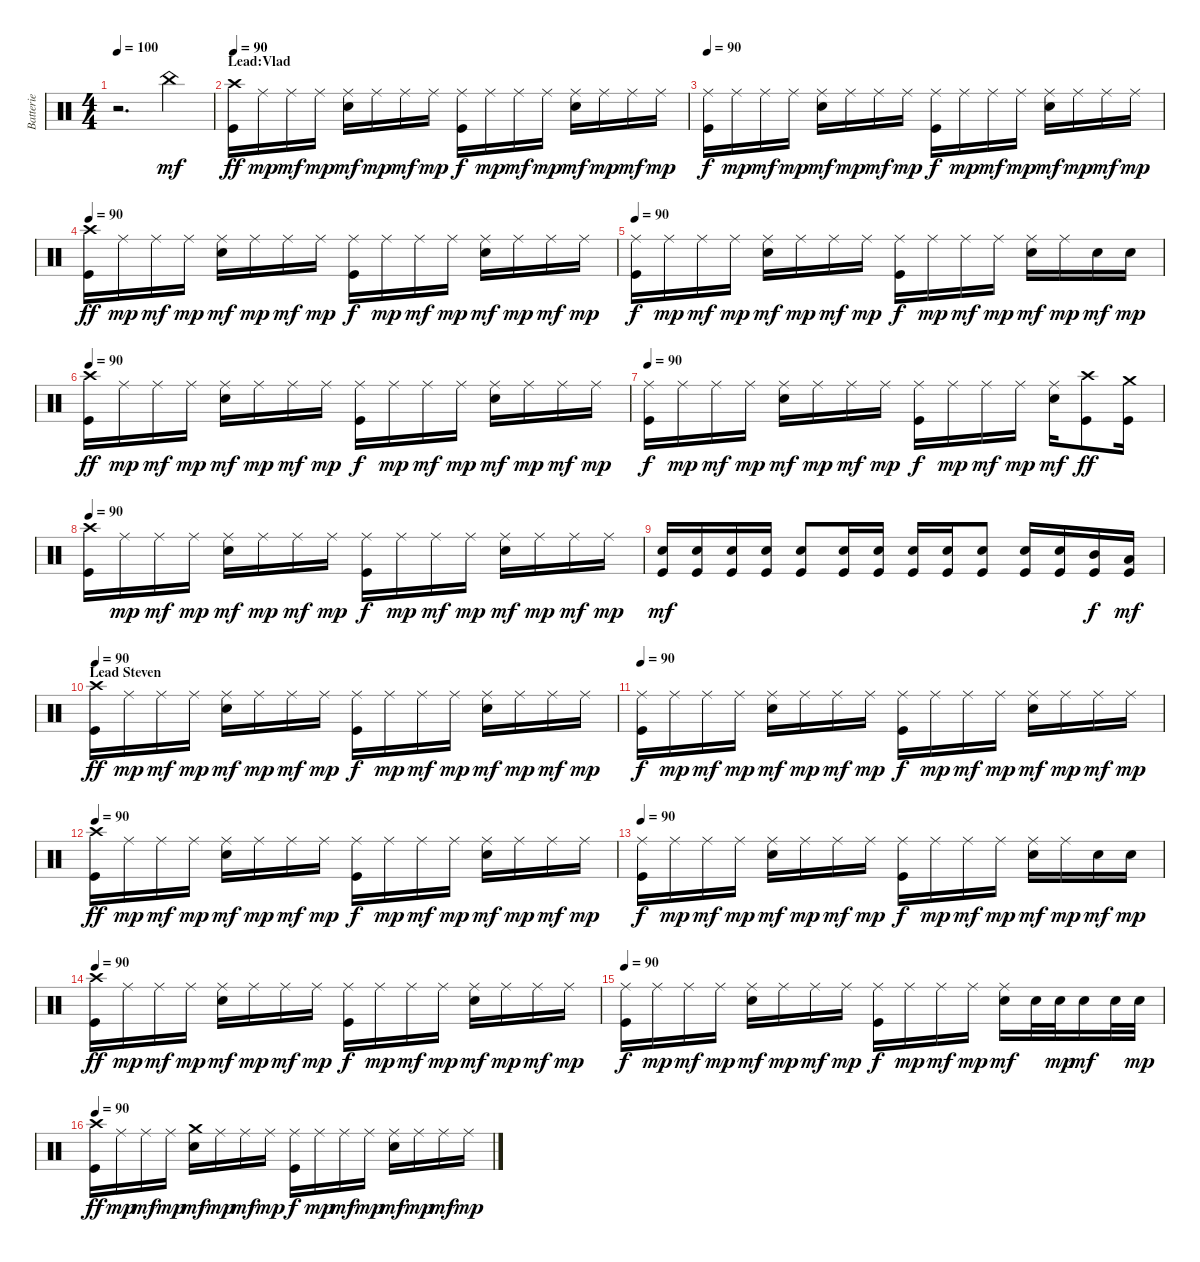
\track ("Batterie" "Batterie") {instrument percussion}
\staff {score}
\articulation defaults
\ts (4 4)
\tempo 100
\clef neutral
\ks c
r.2{d dy f} "China (hit)".4{dy mf} |
\section ("" "Lead:Vlad")
\tempo 90
("Crash high (hit)" "Kick (hit)").16{dy ff} "Ride (middle)".16{dy mp} "Ride (middle)".16{dy mf} "Ride (middle)".16{dy mp} ("Ride (middle)" "Electric Snare (hit)").16{dy mf} "Ride (middle)".16{dy mp} "Ride (middle)".16{dy mf} "Ride (middle)".16{dy mp} ("Ride (middle)" "Kick (hit)").16{dy f} "Ride (middle)".16{dy mp} "Ride (middle)".16{dy mf} "Ride (middle)".16{dy mp} ("Ride (middle)" "Electric Snare (hit)").16{dy mf} "Ride (middle)".16{dy mp} "Ride (middle)".16{dy mf} "Ride (middle)".16{dy mp} |
\tempo 90
("Ride (middle)" "Kick (hit)").16{dy f} "Ride (middle)".16{dy mp} "Ride (middle)".16{dy mf} "Ride (middle)".16{dy mp} ("Ride (middle)" "Electric Snare (hit)").16{dy mf} "Ride (middle)".16{dy mp} "Ride (middle)".16{dy mf} "Ride (middle)".16{dy mp} ("Ride (middle)" "Kick (hit)").16{dy f} "Ride (middle)".16{dy mp} "Ride (middle)".16{dy mf} "Ride (middle)".16{dy mp} ("Ride (middle)" "Electric Snare (hit)").16{dy mf} "Ride (middle)".16{dy mp} "Ride (middle)".16{dy mf} "Ride (middle)".16{dy mp} |
\tempo 90
("Crash high (hit)" "Kick (hit)").16{dy ff} "Ride (middle)".16{dy mp} "Ride (middle)".16{dy mf} "Ride (middle)".16{dy mp} ("Ride (middle)" "Electric Snare (hit)").16{dy mf} "Ride (middle)".16{dy mp} "Ride (middle)".16{dy mf} "Ride (middle)".16{dy mp} ("Ride (middle)" "Kick (hit)").16{dy f} "Ride (middle)".16{dy mp} "Ride (middle)".16{dy mf} "Ride (middle)".16{dy mp} ("Ride (middle)" "Electric Snare (hit)").16{dy mf} "Ride (middle)".16{dy mp} "Ride (middle)".16{dy mf} "Ride (middle)".16{dy mp} |
\tempo 90
("Ride (middle)" "Kick (hit)").16{dy f} "Ride (middle)".16{dy mp} "Ride (middle)".16{dy mf} "Ride (middle)".16{dy mp} ("Ride (middle)" "Electric Snare (hit)").16{dy mf} "Ride (middle)".16{dy mp} "Ride (middle)".16{dy mf} "Ride (middle)".16{dy mp} ("Ride (middle)" "Kick (hit)").16{dy f} "Ride (middle)".16{dy mp} "Ride (middle)".16{dy mf} "Ride (middle)".16{dy mp} ("Ride (middle)" "Electric Snare (hit)").16{dy mf} "Ride (middle)".16{dy mp} "Electric Snare (hit)".16{dy mf} "Electric Snare (hit)".16{dy mp} |
\tempo 90
("Crash high (hit)" "Kick (hit)").16{dy ff} "Ride (middle)".16{dy mp} "Ride (middle)".16{dy mf} "Ride (middle)".16{dy mp} ("Ride (middle)" "Electric Snare (hit)").16{dy mf} "Ride (middle)".16{dy mp} "Ride (middle)".16{dy mf} "Ride (middle)".16{dy mp} ("Ride (middle)" "Kick (hit)").16{dy f} "Ride (middle)".16{dy mp} "Ride (middle)".16{dy mf} "Ride (middle)".16{dy mp} ("Ride (middle)" "Electric Snare (hit)").16{dy mf} "Ride (middle)".16{dy mp} "Ride (middle)".16{dy mf} "Ride (middle)".16{dy mp} |
\tempo 90
("Ride (middle)" "Kick (hit)").16{dy f} "Ride (middle)".16{dy mp} "Ride (middle)".16{dy mf} "Ride (middle)".16{dy mp} ("Ride (middle)" "Electric Snare (hit)").16{dy mf} "Ride (middle)".16{dy mp} "Ride (middle)".16{dy mf} "Ride (middle)".16{dy mp} ("Ride (middle)" "Kick (hit)").16{dy f} "Ride (middle)".16{dy mp} "Ride (middle)".16{dy mf} "Ride (middle)".16{dy mp} ("Ride (middle)" "Electric Snare (hit)").16{dy mf} ("Crash high (hit)" "Kick (hit)").8{dy ff} ("Crash medium (hit)" "Kick (hit)").16 |
\tempo 90
("Crash high (hit)" "Kick (hit)").16 "Ride (middle)".16{dy mp} "Ride (middle)".16{dy mf} "Ride (middle)".16{dy mp} ("Ride (middle)" "Electric Snare (hit)").16{dy mf} "Ride (middle)".16{dy mp} "Ride (middle)".16{dy mf} "Ride (middle)".16{dy mp} ("Ride (middle)" "Kick (hit)").16{dy f} "Ride (middle)".16{dy mp} "Ride (middle)".16{dy mf} "Ride (middle)".16{dy mp} ("Ride (middle)" "Electric Snare (hit)").16{dy mf} "Ride (middle)".16{dy mp} "Ride (middle)".16{dy mf} "Ride (middle)".16{dy mp} |
("Electric Snare (hit)" "Kick (hit)").16{dy mf} ("Electric Snare (hit)" "Kick (hit)").16 ("Electric Snare (hit)" "Kick (hit)").16 ("Electric Snare (hit)" "Kick (hit)").16 ("Electric Snare (hit)" "Kick (hit)").8 ("Electric Snare (hit)" "Kick (hit)").16 ("Electric Snare (hit)" "Kick (hit)").16 ("Electric Snare (hit)" "Kick (hit)").16 ("Electric Snare (hit)" "Kick (hit)").16 ("Electric Snare (hit)" "Kick (hit)").8 ("Electric Snare (hit)" "Kick (hit)").16 ("Electric Snare (hit)" "Kick (hit)").16 ("Mid Tom (hit)" "Kick (hit)").16{dy f} ("Low Tom (hit)" "Kick (hit)").16{dy mf} |
\section ("" "Lead Steven")
\tempo 90
("Crash high (hit)" "Kick (hit)").16{dy ff} "Ride (middle)".16{dy mp} "Ride (middle)".16{dy mf} "Ride (middle)".16{dy mp} ("Ride (middle)" "Electric Snare (hit)").16{dy mf} "Ride (middle)".16{dy mp} "Ride (middle)".16{dy mf} "Ride (middle)".16{dy mp} ("Ride (middle)" "Kick (hit)").16{dy f} "Ride (middle)".16{dy mp} "Ride (middle)".16{dy mf} "Ride (middle)".16{dy mp} ("Ride (middle)" "Electric Snare (hit)").16{dy mf} "Ride (middle)".16{dy mp} "Ride (middle)".16{dy mf} "Ride (middle)".16{dy mp} |
\tempo 90
("Ride (middle)" "Kick (hit)").16{dy f} "Ride (middle)".16{dy mp} "Ride (middle)".16{dy mf} "Ride (middle)".16{dy mp} ("Ride (middle)" "Electric Snare (hit)").16{dy mf} "Ride (middle)".16{dy mp} "Ride (middle)".16{dy mf} "Ride (middle)".16{dy mp} ("Ride (middle)" "Kick (hit)").16{dy f} "Ride (middle)".16{dy mp} "Ride (middle)".16{dy mf} "Ride (middle)".16{dy mp} ("Ride (middle)" "Electric Snare (hit)").16{dy mf} "Ride (middle)".16{dy mp} "Ride (middle)".16{dy mf} "Ride (middle)".16{dy mp} |
\tempo 90
("Crash high (hit)" "Kick (hit)").16{dy ff} "Ride (middle)".16{dy mp} "Ride (middle)".16{dy mf} "Ride (middle)".16{dy mp} ("Ride (middle)" "Electric Snare (hit)").16{dy mf} "Ride (middle)".16{dy mp} "Ride (middle)".16{dy mf} "Ride (middle)".16{dy mp} ("Ride (middle)" "Kick (hit)").16{dy f} "Ride (middle)".16{dy mp} "Ride (middle)".16{dy mf} "Ride (middle)".16{dy mp} ("Ride (middle)" "Electric Snare (hit)").16{dy mf} "Ride (middle)".16{dy mp} "Ride (middle)".16{dy mf} "Ride (middle)".16{dy mp} |
\tempo 90
("Ride (middle)" "Kick (hit)").16{dy f} "Ride (middle)".16{dy mp} "Ride (middle)".16{dy mf} "Ride (middle)".16{dy mp} ("Ride (middle)" "Electric Snare (hit)").16{dy mf} "Ride (middle)".16{dy mp} "Ride (middle)".16{dy mf} "Ride (middle)".16{dy mp} ("Ride (middle)" "Kick (hit)").16{dy f} "Ride (middle)".16{dy mp} "Ride (middle)".16{dy mf} "Ride (middle)".16{dy mp} ("Ride (middle)" "Electric Snare (hit)").16{dy mf} "Ride (middle)".16{dy mp} "Electric Snare (hit)".16{dy mf} "Electric Snare (hit)".16{dy mp} |
\tempo 90
("Crash high (hit)" "Kick (hit)").16{dy ff} "Ride (middle)".16{dy mp} "Ride (middle)".16{dy mf} "Ride (middle)".16{dy mp} ("Ride (middle)" "Electric Snare (hit)").16{dy mf} "Ride (middle)".16{dy mp} "Ride (middle)".16{dy mf} "Ride (middle)".16{dy mp} ("Ride (middle)" "Kick (hit)").16{dy f} "Ride (middle)".16{dy mp} "Ride (middle)".16{dy mf} "Ride (middle)".16{dy mp} ("Ride (middle)" "Electric Snare (hit)").16{dy mf} "Ride (middle)".16{dy mp} "Ride (middle)".16{dy mf} "Ride (middle)".16{dy mp} |
\tempo 90
("Ride (middle)" "Kick (hit)").16{dy f} "Ride (middle)".16{dy mp} "Ride (middle)".16{dy mf} "Ride (middle)".16{dy mp} ("Ride (middle)" "Electric Snare (hit)").16{dy mf} "Ride (middle)".16{dy mp} "Ride (middle)".16{dy mf} "Ride (middle)".16{dy mp} ("Ride (middle)" "Kick (hit)").16{dy f} "Ride (middle)".16{dy mp} "Ride (middle)".16{dy mf} "Ride (middle)".16{dy mp} ("Ride (middle)" "Electric Snare (hit)").16{dy mf} "Electric Snare (hit)".32 "Electric Snare (hit)".32{dy mp} "Electric Snare (hit)".16{dy mf} "Electric Snare (hit)".32 "Electric Snare (hit)".32{dy mp} |
\tempo 90
("Crash high (hit)" "Kick (hit)").16{dy ff} "Ride (middle)".16{dy mp} "Ride (middle)".16{dy mf} "Ride (middle)".16{dy mp} ("Crash medium (hit)" "Electric Snare (hit)").16{dy mf} "Ride (middle)".16{dy mp} "Ride (middle)".16{dy mf} "Ride (middle)".16{dy mp} ("Ride (middle)" "Kick (hit)").16{dy f} "Ride (middle)".16{dy mp} "Ride (middle)".16{dy mf} "Ride (middle)".16{dy mp} ("Ride (middle)" "Electric Snare (hit)").16{dy mf} "Ride (middle)".16{dy mp} "Ride (middle)".16{dy mf} "Ride (middle)".16{dy mp}
